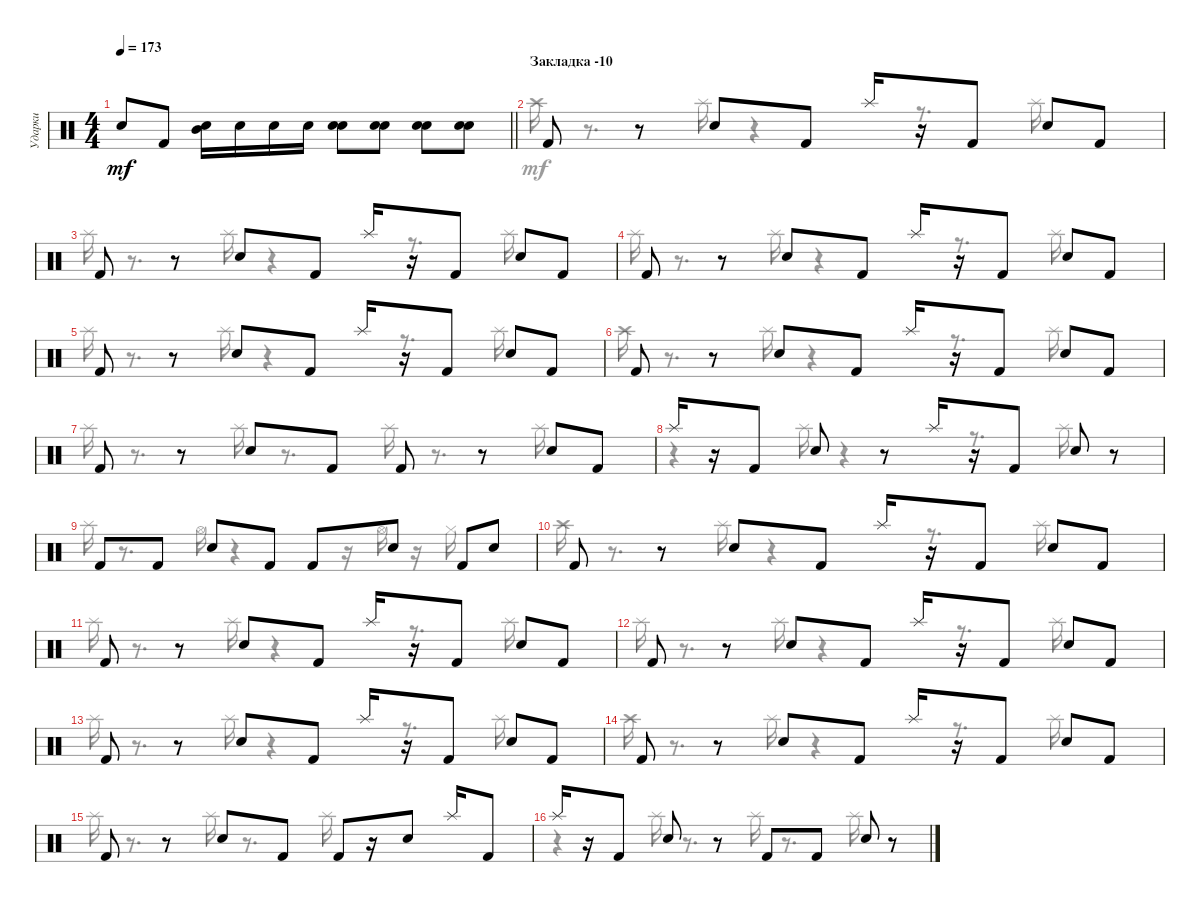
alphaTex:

\track ("Ударки" "Ударки") {instrument percussion}
\staff {score}
\articulation defaults
\voice
\ts (4 4)
\tempo 173
\clef neutral
\barLineRight lightlight
\ks aminor "Snare (hit) 2".8{dy mf} "Kick (hit) 2".8
("Mid Tom (hit)" "Snare (hit) 2").16 "Snare (hit) 2".16 "Snare (hit) 2".16 "Snare (hit) 2".16 ("Snare (hit) 2" "Electric Snare (hit)").8 ("Snare (hit) 2" "Electric Snare (hit)").8 ("Electric Snare (hit)" "Snare (hit) 2").8 ("Electric Snare (hit)" "Snare (hit) 2").8 |
\section ("" "Закладка -10")
\ks c "Kick (hit) 2".8
r.8 "Snare (hit) 2".8 "Kick (hit) 2".8 "Splash (hit)".16 r.16 "Kick (hit) 2".8 "Snare (hit) 2".8 "Kick (hit) 2".8 |
\ks aminor "Kick (hit) 2".8
r.8 "Snare (hit) 2".8 "Kick (hit) 2".8 "Splash (hit)".16 r.16 "Kick (hit) 2".8 "Snare (hit) 2".8 "Kick (hit) 2".8 |
"Kick (hit) 2".8 r.8 "Snare (hit) 2".8 "Kick (hit) 2".8 "Splash (hit)".16 r.16 "Kick (hit) 2".8 "Snare (hit) 2".8 "Kick (hit) 2".8 |
"Kick (hit) 2".8 r.8 "Snare (hit) 2".8 "Kick (hit) 2".8 "Splash (hit)".16 r.16 "Kick (hit) 2".8 "Snare (hit) 2".8 "Kick (hit) 2".8 |
"Kick (hit) 2".8 r.8 "Snare (hit) 2".8 "Kick (hit) 2".8 "Splash (hit)".16 r.16 "Kick (hit) 2".8 "Snare (hit) 2".8 "Kick (hit) 2".8 |
"Kick (hit) 2".8 r.8 "Snare (hit) 2".8 "Kick (hit) 2".8 "Kick (hit) 2".8 r.8 "Snare (hit) 2".8 "Kick (hit) 2".8 |
"Splash (hit)".16 r.16 "Kick (hit) 2".8 "Snare (hit) 2".8 r.8 "Splash (hit)".16 r.16 "Kick (hit) 2".8 "Snare (hit) 2".8 r.8 |
"Kick (hit) 2".8 "Kick (hit) 2".8 "Snare (hit) 2".8 "Kick (hit) 2".8 "Kick (hit) 2".8 "Snare (hit) 2".8 "Kick (hit) 2".8 "Snare (hit) 2".8 |
\ks c "Kick (hit) 2".8
r.8 "Snare (hit) 2".8 "Kick (hit) 2".8 "Splash (hit)".16 r.16 "Kick (hit) 2".8 "Snare (hit) 2".8 "Kick (hit) 2".8 |
\ks aminor "Kick (hit) 2".8
r.8 "Snare (hit) 2".8 "Kick (hit) 2".8 "Splash (hit)".16 r.16 "Kick (hit) 2".8 "Snare (hit) 2".8 "Kick (hit) 2".8 |
"Kick (hit) 2".8 r.8 "Snare (hit) 2".8 "Kick (hit) 2".8 "Splash (hit)".16 r.16 "Kick (hit) 2".8 "Snare (hit) 2".8 "Kick (hit) 2".8 |
"Kick (hit) 2".8 r.8 "Snare (hit) 2".8 "Kick (hit) 2".8 "Splash (hit)".16 r.16 "Kick (hit) 2".8 "Snare (hit) 2".8 "Kick (hit) 2".8 |
"Kick (hit) 2".8 r.8 "Snare (hit) 2".8 "Kick (hit) 2".8 "Splash (hit)".16 r.16 "Kick (hit) 2".8 "Snare (hit) 2".8 "Kick (hit) 2".8 |
"Kick (hit) 2".8 r.8 "Snare (hit) 2".8 "Kick (hit) 2".8 "Kick (hit) 2".8 r.16 "Snare (hit) 2".8 "Splash (hit)".16 "Kick (hit) 2".8 |
"Splash (hit)".16 r.16 "Kick (hit) 2".8 "Snare (hit) 2".8 r.8 "Kick (hit) 2".8 "Kick (hit) 2".8 "Snare (hit) 2".8 r.8
\voice
\clef neutral
\ottava regular
\simile none
\barLineRight lightlight
\ks aminor
|
\ks c "Crash high (hit)".16
r.8{d} "Splash (hit)".16 r.4 r.8{d} "Splash (hit)".16 |
\ks aminor "Splash (hit)".16
r.8{d} "Splash (hit)".16 r.4 r.8{d} "Splash (hit)".16 |
"Splash (hit)".16 r.8{d} "Splash (hit)".16 r.4 r.8{d} "Splash (hit)".16 |
"Splash (hit)".16 r.8{d} "Splash (hit)".16 r.4 r.8{d} "Splash (hit)".16 |
"Crash high (hit)".16 r.8{d} "Splash (hit)".16 r.4 r.8{d} "Splash (hit)".16 |
"Splash (hit)".16 r.8{d} "Splash (hit)".16 r.8{d} "Splash (hit)".16 r.8{d} "Splash (hit)".16 |
r.4 "Splash (hit)".16 r.4 r.8{d} "Splash (hit)".16 |
"Splash (hit)".16 r.8{d} "Hi-Hat (open)".16 r.4 r.16 "Hi-Hat (open)".16 r.16 "Hi-Hat (closed)".16 |
\ks c "Crash high (hit)".16
r.8{d} "Splash (hit)".16 r.4 r.8{d} "Splash (hit)".16 |
\ks aminor "Splash (hit)".16
r.8{d} "Splash (hit)".16 r.4 r.8{d} "Splash (hit)".16 |
"Splash (hit)".16 r.8{d} "Splash (hit)".16 r.4 r.8{d} "Splash (hit)".16 |
"Splash (hit)".16 r.8{d} "Splash (hit)".16 r.4 r.8{d} "Splash (hit)".16 |
"Crash high (hit)".16 r.8{d} "Splash (hit)".16 r.4 r.8{d} "Splash (hit)".16 |
"Splash (hit)".16 r.8{d} "Splash (hit)".16 r.8{d} "Splash (hit)".16 |
r.4 "Splash (hit)".16 r.8{d} "Splash (hit)".16 r.8{d} "Splash (hit)".16
